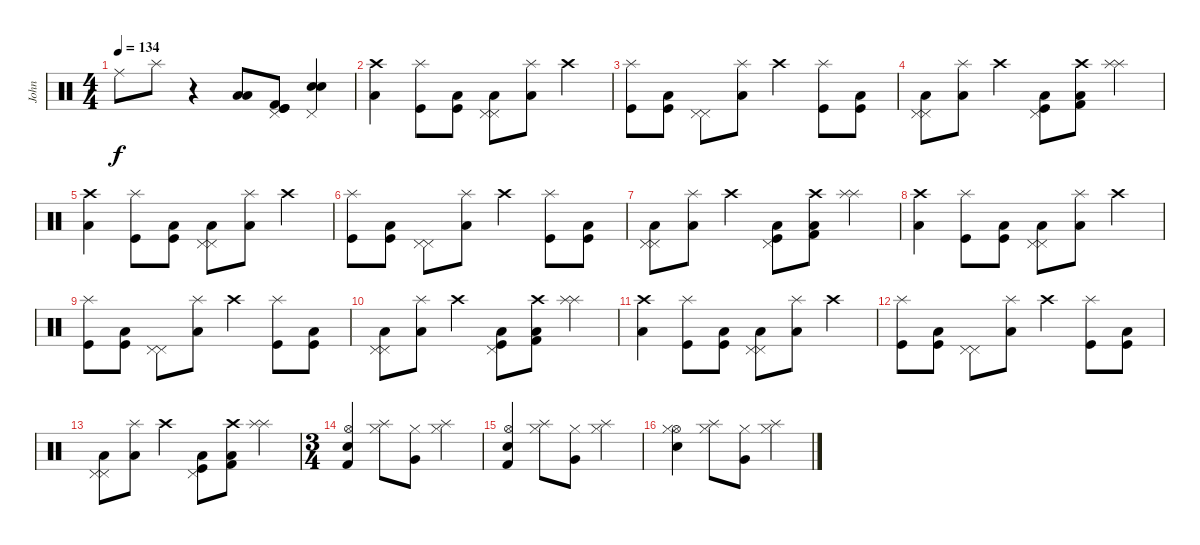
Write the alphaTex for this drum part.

\track ("John" "John") {instrument percussion}
\staff {score}
\articulation defaults
\ts (4 4)
\tempo 134
\clef neutral
\ks c "Ride (middle)".8{dy f} "Splash (hit)".8
r.4 ("Low Tom (hit)" "Low Tom (hit)").8 ("Kick (hit) 2" "Kick (hit)" "Kick (hit)" "Pedal Hi-Hat (hit)").8 ("Snare (hit) 2" "Snare (hit) 2" "Pedal Hi-Hat (hit)").4 |
("Crash high (hit)" "Low Tom (hit)").4 ("Splash (hit)" "Kick (hit)").8 ("Kick (hit)" "Low Tom (hit)").8 ("Pedal Hi-Hat (hit)" "Pedal Hi-Hat (hit)" "Low Tom (hit)").8 ("Splash (hit)" "Low Tom (hit)").8 "Crash high (hit)".4 |
("Splash (hit)" "Kick (hit)").8 ("Kick (hit)" "Low Tom (hit)").8 ("Pedal Hi-Hat (hit)" "Pedal Hi-Hat (hit)").8 ("Splash (hit)" "Low Tom (hit)").8 "Crash high (hit)".4 ("Splash (hit)" "Kick (hit)").8 ("Kick (hit)" "Low Tom (hit)").8 |
("Pedal Hi-Hat (hit)" "Pedal Hi-Hat (hit)" "Low Tom (hit)").8 ("Splash (hit)" "Low Tom (hit)").8 "Crash high (hit)".4 ("Pedal Hi-Hat (hit)" "Kick (hit)" "Low Tom (hit)").8 ("Kick (hit) 2" "Low Tom (hit)" "Crash high (hit)").8 ("Splash (hit)" "Splash (hit)").4 |
("Crash high (hit)" "Low Tom (hit)").4 ("Splash (hit)" "Kick (hit)").8 ("Kick (hit)" "Low Tom (hit)").8 ("Pedal Hi-Hat (hit)" "Pedal Hi-Hat (hit)" "Low Tom (hit)").8 ("Splash (hit)" "Low Tom (hit)").8 "Crash high (hit)".4 |
("Splash (hit)" "Kick (hit)").8 ("Kick (hit)" "Low Tom (hit)").8 ("Pedal Hi-Hat (hit)" "Pedal Hi-Hat (hit)").8 ("Splash (hit)" "Low Tom (hit)").8 "Crash high (hit)".4 ("Splash (hit)" "Kick (hit)").8 ("Kick (hit)" "Low Tom (hit)").8 |
("Pedal Hi-Hat (hit)" "Pedal Hi-Hat (hit)" "Low Tom (hit)").8 ("Splash (hit)" "Low Tom (hit)").8 "Crash high (hit)".4 ("Pedal Hi-Hat (hit)" "Kick (hit)" "Low Tom (hit)").8 ("Kick (hit) 2" "Low Tom (hit)" "Crash high (hit)").8 ("Splash (hit)" "Splash (hit)").4 |
("Crash high (hit)" "Low Tom (hit)").4 ("Splash (hit)" "Kick (hit)").8 ("Kick (hit)" "Low Tom (hit)").8 ("Pedal Hi-Hat (hit)" "Pedal Hi-Hat (hit)" "Low Tom (hit)").8 ("Splash (hit)" "Low Tom (hit)").8 "Crash high (hit)".4 |
("Splash (hit)" "Kick (hit)").8 ("Kick (hit)" "Low Tom (hit)").8 ("Pedal Hi-Hat (hit)" "Pedal Hi-Hat (hit)").8 ("Splash (hit)" "Low Tom (hit)").8 "Crash high (hit)".4 ("Splash (hit)" "Kick (hit)").8 ("Kick (hit)" "Low Tom (hit)").8 |
("Pedal Hi-Hat (hit)" "Pedal Hi-Hat (hit)" "Low Tom (hit)").8 ("Splash (hit)" "Low Tom (hit)").8 "Crash high (hit)".4 ("Pedal Hi-Hat (hit)" "Kick (hit)" "Low Tom (hit)").8 ("Kick (hit) 2" "Low Tom (hit)" "Crash high (hit)").8 ("Splash (hit)" "Splash (hit)").4 |
("Crash high (hit)" "Low Tom (hit)").4 ("Splash (hit)" "Kick (hit)").8 ("Kick (hit)" "Low Tom (hit)").8 ("Pedal Hi-Hat (hit)" "Pedal Hi-Hat (hit)" "Low Tom (hit)").8 ("Splash (hit)" "Low Tom (hit)").8 "Crash high (hit)".4 |
("Splash (hit)" "Kick (hit)").8 ("Kick (hit)" "Low Tom (hit)").8 ("Pedal Hi-Hat (hit)" "Pedal Hi-Hat (hit)").8 ("Splash (hit)" "Low Tom (hit)").8 "Crash high (hit)".4 ("Splash (hit)" "Kick (hit)").8 ("Kick (hit)" "Low Tom (hit)").8 |
("Pedal Hi-Hat (hit)" "Pedal Hi-Hat (hit)" "Low Tom (hit)").8 ("Splash (hit)" "Low Tom (hit)").8 "Crash high (hit)".4 ("Pedal Hi-Hat (hit)" "Kick (hit)" "Low Tom (hit)").8 ("Kick (hit) 2" "Low Tom (hit)" "Crash high (hit)").8 ("Splash (hit)" "Splash (hit)").4 |
\ts (3 4)
("Hi-Hat (open)" "Electric Snare (hit)" "Kick (hit) 2").4 ("Hi-Hat (closed)" "Splash (hit)").8 ("Hi-Hat (closed)" "Very Low Tom (hit)").8 ("Hi-Hat (closed)" "Splash (hit)").4 |
("Hi-Hat (open)" "Electric Snare (hit)" "Kick (hit) 2").4 ("Hi-Hat (closed)" "Splash (hit)").8 ("Hi-Hat (closed)" "Very Low Tom (hit)").8 ("Hi-Hat (closed)" "Splash (hit)").4 |
("Hi-Hat (open)" "Hi-Hat (closed)" "Electric Snare (hit)").4 ("Hi-Hat (closed)" "Splash (hit)").8 ("Hi-Hat (closed)" "Very Low Tom (hit)").8 ("Hi-Hat (closed)" "Splash (hit)").4
